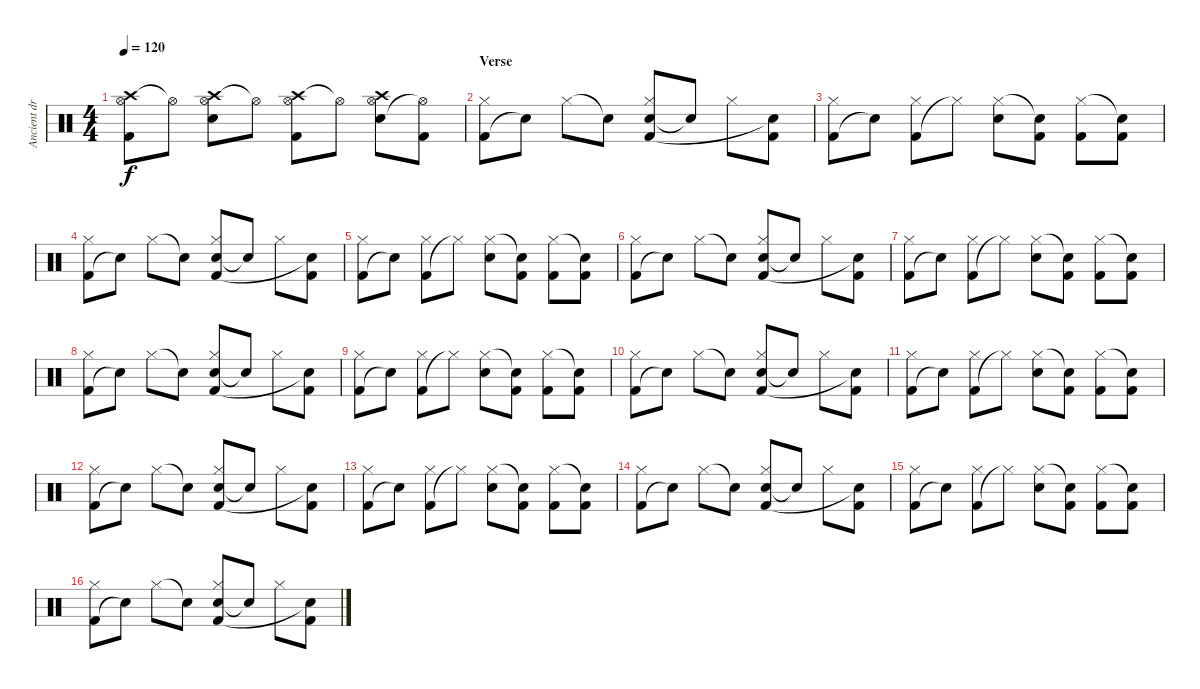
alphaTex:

\track ("Ancient drum type things :S" "Ancient dr") {instrument percussion}
\staff {score}
\articulation defaults
\ts (4 4)
\tempo 120
\clef neutral
\ks c
("Crash high (hit)" "Kick (hit) 2" "Hi-Hat (open)").8{dy f} "Hi-Hat (open)"{t}.8 ("Crash high (hit)" "Electric Snare (hit)" "Hi-Hat (open)").8 "Hi-Hat (open)"{t}.8 ("Crash high (hit)" "Kick (hit) 2" "Hi-Hat (open)").8 "Hi-Hat (open)"{t}.8 ("Crash high (hit)" "Electric Snare (hit)" "Hi-Hat (open)").8 ("Kick (hit) 2" "Hi-Hat (open)"{t}).8 |
\section ("" "Verse")
("Kick (hit) 2" "Hi-Hat (closed)").8 "Snare (hit)"{t}.8 "Hi-Hat (closed)".8 "Snare (hit)"{t}.8 ("Snare (hit) 2" "Kick (hit) 2" "Hi-Hat (closed)").8 "Snare (hit)"{t}.8 "Hi-Hat (closed)".8 ("Kick (hit) 2" "Snare (hit)"{t}).8 |
("Kick (hit) 2" "Hi-Hat (closed)").8 "Snare (hit)"{t}.8 ("Kick (hit) 2" "Hi-Hat (closed)").8 "Hi-Hat (closed)"{t}.8 ("Snare (hit) 2" "Hi-Hat (closed)").8 ("Kick (hit) 2" "Snare (hit)"{t}).8 ("Kick (hit) 2" "Hi-Hat (closed)").8 ("Kick (hit) 2" "Snare (hit)"{t}).8 |
("Kick (hit) 2" "Hi-Hat (closed)").8 "Snare (hit)"{t}.8 "Hi-Hat (closed)".8 "Snare (hit)"{t}.8 ("Snare (hit) 2" "Kick (hit) 2" "Hi-Hat (closed)").8 "Snare (hit)"{t}.8 "Hi-Hat (closed)".8 ("Kick (hit) 2" "Snare (hit)"{t}).8 |
("Kick (hit) 2" "Hi-Hat (closed)").8 "Snare (hit)"{t}.8 ("Kick (hit) 2" "Hi-Hat (closed)").8 "Hi-Hat (closed)"{t}.8 ("Snare (hit) 2" "Hi-Hat (closed)").8 ("Kick (hit) 2" "Snare (hit)"{t}).8 ("Kick (hit) 2" "Hi-Hat (closed)").8 ("Kick (hit) 2" "Snare (hit)"{t}).8 |
("Kick (hit) 2" "Hi-Hat (closed)").8 "Snare (hit)"{t}.8 "Hi-Hat (closed)".8 "Snare (hit)"{t}.8 ("Snare (hit) 2" "Kick (hit) 2" "Hi-Hat (closed)").8 "Snare (hit)"{t}.8 "Hi-Hat (closed)".8 ("Kick (hit) 2" "Snare (hit)"{t}).8 |
("Kick (hit) 2" "Hi-Hat (closed)").8 "Snare (hit)"{t}.8 ("Kick (hit) 2" "Hi-Hat (closed)").8 "Hi-Hat (closed)"{t}.8 ("Snare (hit) 2" "Hi-Hat (closed)").8 ("Kick (hit) 2" "Snare (hit)"{t}).8 ("Kick (hit) 2" "Hi-Hat (closed)").8 ("Kick (hit) 2" "Snare (hit)"{t}).8 |
("Kick (hit) 2" "Hi-Hat (closed)").8 "Snare (hit)"{t}.8 "Hi-Hat (closed)".8 "Snare (hit)"{t}.8 ("Snare (hit) 2" "Kick (hit) 2" "Hi-Hat (closed)").8 "Snare (hit)"{t}.8 "Hi-Hat (closed)".8 ("Kick (hit) 2" "Snare (hit)"{t}).8 |
("Kick (hit) 2" "Hi-Hat (closed)").8 "Snare (hit)"{t}.8 ("Kick (hit) 2" "Hi-Hat (closed)").8 "Hi-Hat (closed)"{t}.8 ("Snare (hit) 2" "Hi-Hat (closed)").8 ("Kick (hit) 2" "Snare (hit)"{t}).8 ("Kick (hit) 2" "Hi-Hat (closed)").8 ("Kick (hit) 2" "Snare (hit)"{t}).8 |
("Kick (hit) 2" "Hi-Hat (closed)").8 "Snare (hit)"{t}.8 "Hi-Hat (closed)".8 "Snare (hit)"{t}.8 ("Snare (hit) 2" "Kick (hit) 2" "Hi-Hat (closed)").8 "Snare (hit)"{t}.8 "Hi-Hat (closed)".8 ("Kick (hit) 2" "Snare (hit)"{t}).8 |
("Kick (hit) 2" "Hi-Hat (closed)").8 "Snare (hit)"{t}.8 ("Kick (hit) 2" "Hi-Hat (closed)").8 "Hi-Hat (closed)"{t}.8 ("Snare (hit) 2" "Hi-Hat (closed)").8 ("Kick (hit) 2" "Snare (hit)"{t}).8 ("Kick (hit) 2" "Hi-Hat (closed)").8 ("Kick (hit) 2" "Snare (hit)"{t}).8 |
("Kick (hit) 2" "Hi-Hat (closed)").8 "Snare (hit)"{t}.8 "Hi-Hat (closed)".8 "Snare (hit)"{t}.8 ("Snare (hit) 2" "Kick (hit) 2" "Hi-Hat (closed)").8 "Snare (hit)"{t}.8 "Hi-Hat (closed)".8 ("Kick (hit) 2" "Snare (hit)"{t}).8 |
("Kick (hit) 2" "Hi-Hat (closed)").8 "Snare (hit)"{t}.8 ("Kick (hit) 2" "Hi-Hat (closed)").8 "Hi-Hat (closed)"{t}.8 ("Snare (hit) 2" "Hi-Hat (closed)").8 ("Kick (hit) 2" "Snare (hit)"{t}).8 ("Kick (hit) 2" "Hi-Hat (closed)").8 ("Kick (hit) 2" "Snare (hit)"{t}).8 |
("Kick (hit) 2" "Hi-Hat (closed)").8 "Snare (hit)"{t}.8 "Hi-Hat (closed)".8 "Snare (hit)"{t}.8 ("Snare (hit) 2" "Kick (hit) 2" "Hi-Hat (closed)").8 "Snare (hit)"{t}.8 "Hi-Hat (closed)".8 ("Kick (hit) 2" "Snare (hit)"{t}).8 |
("Kick (hit) 2" "Hi-Hat (closed)").8 "Snare (hit)"{t}.8 ("Kick (hit) 2" "Hi-Hat (closed)").8 "Hi-Hat (closed)"{t}.8 ("Snare (hit) 2" "Hi-Hat (closed)").8 ("Kick (hit) 2" "Snare (hit)"{t}).8 ("Kick (hit) 2" "Hi-Hat (closed)").8 ("Kick (hit) 2" "Snare (hit)"{t}).8 |
("Kick (hit) 2" "Hi-Hat (closed)").8 "Snare (hit)"{t}.8 "Hi-Hat (closed)".8 "Snare (hit)"{t}.8 ("Snare (hit) 2" "Kick (hit) 2" "Hi-Hat (closed)").8 "Snare (hit)"{t}.8 "Hi-Hat (closed)".8 ("Kick (hit) 2" "Snare (hit)"{t}).8
